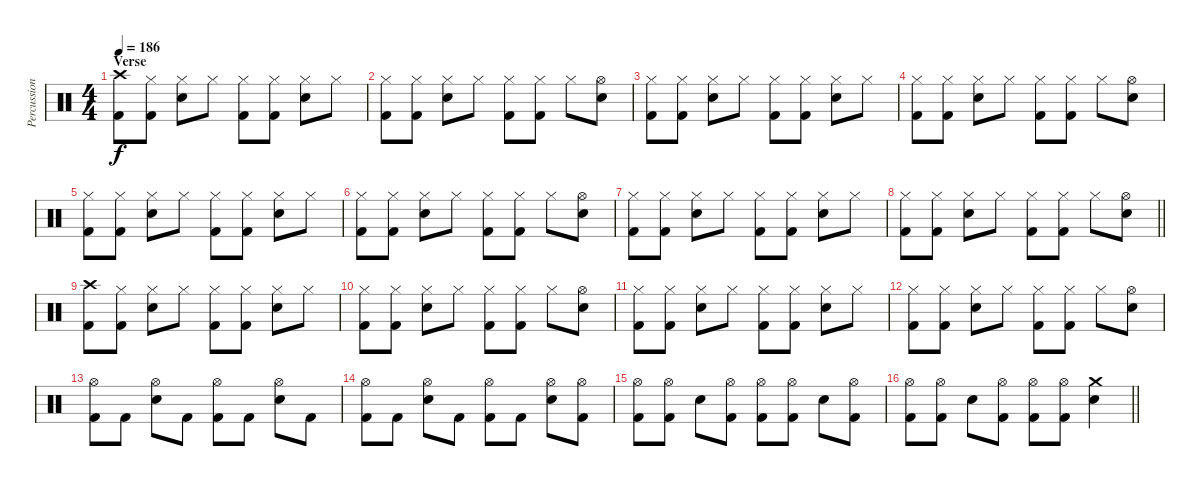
\track ("Percussion" "Percussion") {instrument percussion}
\staff {score}
\articulation defaults
\ts (4 4)
\section ("" "Verse")
\tempo 186
\clef neutral
\ks c
("Crash high (hit)" "Kick (hit) 2").8{dy f} ("Hi-Hat (closed)" "Kick (hit) 2").8 ("Hi-Hat (closed)" "Electric Snare (hit)").8 "Hi-Hat (closed)".8 ("Hi-Hat (closed)" "Kick (hit) 2").8 ("Hi-Hat (closed)" "Kick (hit) 2").8 ("Hi-Hat (closed)" "Electric Snare (hit)").8 "Hi-Hat (closed)".8 |
("Hi-Hat (closed)" "Kick (hit) 2").8 ("Hi-Hat (closed)" "Kick (hit) 2").8 ("Hi-Hat (closed)" "Electric Snare (hit)").8 "Hi-Hat (closed)".8 ("Hi-Hat (closed)" "Kick (hit) 2").8 ("Hi-Hat (closed)" "Kick (hit) 2").8 "Hi-Hat (closed)".8 ("Hi-Hat (open)" "Electric Snare (hit)").8 |
("Hi-Hat (closed)" "Kick (hit) 2").8 ("Hi-Hat (closed)" "Kick (hit) 2").8 ("Hi-Hat (closed)" "Electric Snare (hit)").8 "Hi-Hat (closed)".8 ("Hi-Hat (closed)" "Kick (hit) 2").8 ("Hi-Hat (closed)" "Kick (hit) 2").8 ("Hi-Hat (closed)" "Electric Snare (hit)").8 "Hi-Hat (closed)".8 |
("Hi-Hat (closed)" "Kick (hit) 2").8 ("Hi-Hat (closed)" "Kick (hit) 2").8 ("Hi-Hat (closed)" "Electric Snare (hit)").8 "Hi-Hat (closed)".8 ("Hi-Hat (closed)" "Kick (hit) 2").8 ("Hi-Hat (closed)" "Kick (hit) 2").8 "Hi-Hat (closed)".8 ("Hi-Hat (open)" "Electric Snare (hit)").8 |
("Hi-Hat (closed)" "Kick (hit) 2").8 ("Hi-Hat (closed)" "Kick (hit) 2").8 ("Hi-Hat (closed)" "Electric Snare (hit)").8 "Hi-Hat (closed)".8 ("Hi-Hat (closed)" "Kick (hit) 2").8 ("Hi-Hat (closed)" "Kick (hit) 2").8 ("Hi-Hat (closed)" "Electric Snare (hit)").8 "Hi-Hat (closed)".8 |
("Hi-Hat (closed)" "Kick (hit) 2").8 ("Hi-Hat (closed)" "Kick (hit) 2").8 ("Hi-Hat (closed)" "Electric Snare (hit)").8 "Hi-Hat (closed)".8 ("Hi-Hat (closed)" "Kick (hit) 2").8 ("Hi-Hat (closed)" "Kick (hit) 2").8 "Hi-Hat (closed)".8 ("Hi-Hat (open)" "Electric Snare (hit)").8 |
("Hi-Hat (closed)" "Kick (hit) 2").8 ("Hi-Hat (closed)" "Kick (hit) 2").8 ("Hi-Hat (closed)" "Electric Snare (hit)").8 "Hi-Hat (closed)".8 ("Hi-Hat (closed)" "Kick (hit) 2").8 ("Hi-Hat (closed)" "Kick (hit) 2").8 ("Hi-Hat (closed)" "Electric Snare (hit)").8 "Hi-Hat (closed)".8 |
\barLineRight lightlight
("Hi-Hat (closed)" "Kick (hit) 2").8 ("Hi-Hat (closed)" "Kick (hit) 2").8 ("Hi-Hat (closed)" "Electric Snare (hit)").8 "Hi-Hat (closed)".8 ("Hi-Hat (closed)" "Kick (hit) 2").8 ("Hi-Hat (closed)" "Kick (hit) 2").8 "Hi-Hat (closed)".8 ("Hi-Hat (open)" "Electric Snare (hit)").8 |
("Crash high (hit)" "Kick (hit) 2").8 ("Hi-Hat (closed)" "Kick (hit) 2").8 ("Hi-Hat (closed)" "Electric Snare (hit)").8 "Hi-Hat (closed)".8 ("Hi-Hat (closed)" "Kick (hit) 2").8 ("Hi-Hat (closed)" "Kick (hit) 2").8 ("Hi-Hat (closed)" "Electric Snare (hit)").8 "Hi-Hat (closed)".8 |
("Hi-Hat (closed)" "Kick (hit) 2").8 ("Hi-Hat (closed)" "Kick (hit) 2").8 ("Hi-Hat (closed)" "Electric Snare (hit)").8 "Hi-Hat (closed)".8 ("Hi-Hat (closed)" "Kick (hit) 2").8 ("Hi-Hat (closed)" "Kick (hit) 2").8 "Hi-Hat (closed)".8 ("Hi-Hat (open)" "Electric Snare (hit)").8 |
("Hi-Hat (closed)" "Kick (hit) 2").8 ("Hi-Hat (closed)" "Kick (hit) 2").8 ("Hi-Hat (closed)" "Electric Snare (hit)").8 "Hi-Hat (closed)".8 ("Hi-Hat (closed)" "Kick (hit) 2").8 ("Hi-Hat (closed)" "Kick (hit) 2").8 ("Hi-Hat (closed)" "Electric Snare (hit)").8 "Hi-Hat (closed)".8 |
("Hi-Hat (closed)" "Kick (hit) 2").8 ("Hi-Hat (closed)" "Kick (hit) 2").8 ("Hi-Hat (closed)" "Electric Snare (hit)").8 "Hi-Hat (closed)".8 ("Hi-Hat (closed)" "Kick (hit) 2").8 ("Hi-Hat (closed)" "Kick (hit) 2").8 "Hi-Hat (closed)".8 ("Hi-Hat (open)" "Electric Snare (hit)").8 |
("Hi-Hat (open)" "Kick (hit) 2").8 "Kick (hit) 2".8 ("Hi-Hat (open)" "Electric Snare (hit)").8 "Kick (hit) 2".8 ("Hi-Hat (open)" "Kick (hit) 2").8 "Kick (hit) 2".8 ("Hi-Hat (open)" "Electric Snare (hit)").8 "Kick (hit) 2".8 |
("Hi-Hat (open)" "Kick (hit) 2").8 "Kick (hit) 2".8 ("Hi-Hat (open)" "Electric Snare (hit)").8 "Kick (hit) 2".8 ("Hi-Hat (open)" "Kick (hit) 2").8 "Kick (hit) 2".8 ("Hi-Hat (open)" "Electric Snare (hit)").8 ("Hi-Hat (open)" "Kick (hit) 2").8 |
("Hi-Hat (open)" "Kick (hit) 2").8 ("Hi-Hat (open)" "Kick (hit) 2").8 "Electric Snare (hit)".8 ("Hi-Hat (open)" "Kick (hit) 2").8 ("Hi-Hat (open)" "Kick (hit) 2").8 ("Hi-Hat (open)" "Kick (hit) 2").8 "Electric Snare (hit)".8 ("Hi-Hat (open)" "Kick (hit) 2").8 |
\barLineRight lightlight
("Hi-Hat (open)" "Kick (hit) 2").8 ("Hi-Hat (open)" "Kick (hit) 2").8 "Electric Snare (hit)".8 ("Hi-Hat (open)" "Kick (hit) 2").8 ("Hi-Hat (open)" "Kick (hit) 2").8 ("Hi-Hat (open)" "Kick (hit) 2").8 ("Crash medium (hit)" "Electric Snare (hit)").4
